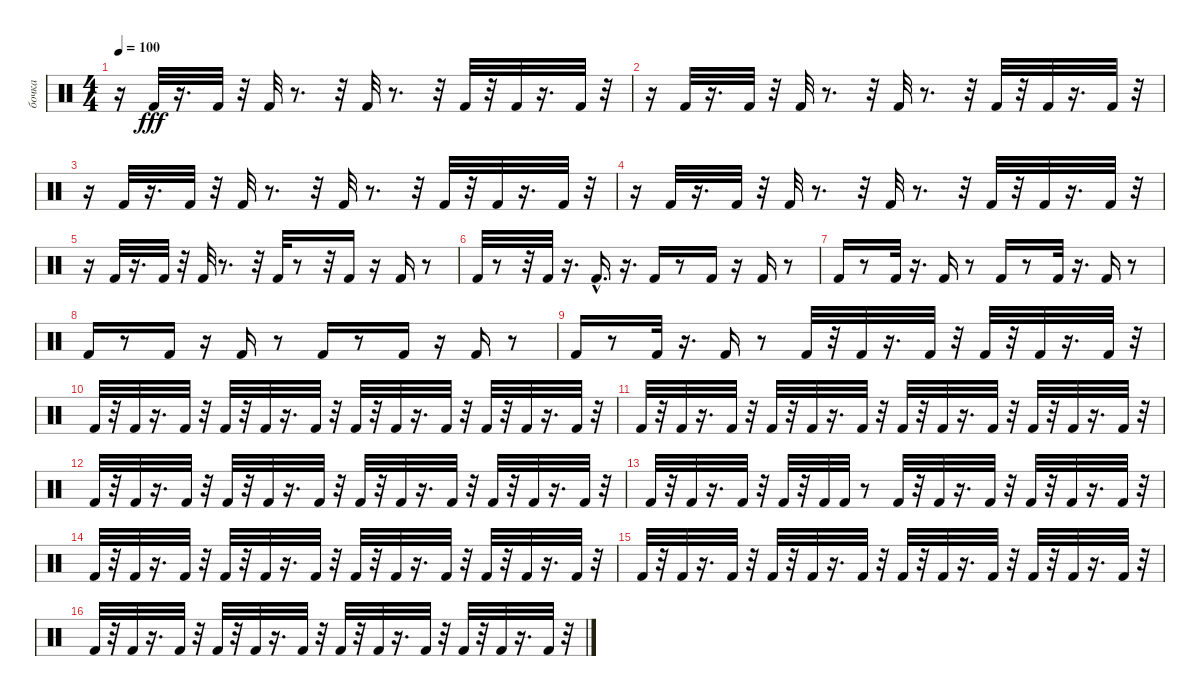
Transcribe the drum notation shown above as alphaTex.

\track ("бочка" "бочка") {instrument percussion}
\staff {score}
\articulation defaults
\ts (4 4)
\tempo 100
\clef neutral
\ks c
r.16{dy fff} "Kick (hit) 2".32 r.16{d} "Kick (hit) 2".32 r.32 "Kick (hit) 2".32 r.8{d} r.32 "Kick (hit) 2".32 r.8{d} r.32 "Kick (hit) 2".32 r.32 "Kick (hit) 2".32 r.16{d} "Kick (hit) 2".32 r.32 |
r.16 "Kick (hit) 2".32 r.16{d} "Kick (hit) 2".32 r.32 "Kick (hit) 2".32 r.8{d} r.32 "Kick (hit) 2".32 r.8{d} r.32 "Kick (hit) 2".32 r.32 "Kick (hit) 2".32 r.16{d} "Kick (hit) 2".32 r.32 |
r.16 "Kick (hit) 2".32 r.16{d} "Kick (hit) 2".32 r.32 "Kick (hit) 2".32 r.8{d} r.32 "Kick (hit) 2".32 r.8{d} r.32 "Kick (hit) 2".32 r.32 "Kick (hit) 2".32 r.16{d} "Kick (hit) 2".32 r.32 |
r.16 "Kick (hit) 2".32 r.16{d} "Kick (hit) 2".32 r.32 "Kick (hit) 2".32 r.8{d} r.32 "Kick (hit) 2".32 r.8{d} r.32 "Kick (hit) 2".32 r.32 "Kick (hit) 2".32 r.16{d} "Kick (hit) 2".32 r.32 |
r.16 "Kick (hit) 2".32 r.16{d} "Kick (hit) 2".32 r.32 "Kick (hit) 2".32 r.8{d} r.32 "Kick (hit) 2".32 r.8 r.32 "Kick (hit) 2".16 r.16 "Kick (hit) 2".16 r.8 |
"Kick (hit) 2".32 r.8 r.32 "Kick (hit) 2".32 r.16{d} "Kick (hit) 2"{hac}.16{d} r.16{d} "Kick (hit) 2".16 r.8 "Kick (hit) 2".16 r.16 "Kick (hit) 2".16 r.8 |
"Kick (hit) 2".16 r.8 "Kick (hit) 2".32 r.16{d} "Kick (hit) 2".16 r.8 "Kick (hit) 2".16 r.8 "Kick (hit) 2".32 r.16{d} "Kick (hit) 2".16 r.8 |
"Kick (hit) 2".16 r.8 "Kick (hit) 2".16 r.16 "Kick (hit) 2".16 r.8 "Kick (hit) 2".16 r.8 "Kick (hit) 2".16 r.16 "Kick (hit) 2".16 r.8 |
"Kick (hit) 2".16 r.8 "Kick (hit) 2".32 r.16{d} "Kick (hit) 2".16 r.8 "Kick (hit) 2".32 r.32 "Kick (hit) 2".32 r.16{d} "Kick (hit) 2".32 r.32 "Kick (hit) 2".32 r.32 "Kick (hit) 2".32 r.16{d} "Kick (hit) 2".32 r.32 |
"Kick (hit) 2".32 r.32 "Kick (hit) 2".32 r.16{d} "Kick (hit) 2".32 r.32 "Kick (hit) 2".32 r.32 "Kick (hit) 2".32 r.16{d} "Kick (hit) 2".32 r.32 "Kick (hit) 2".32 r.32 "Kick (hit) 2".32 r.16{d} "Kick (hit) 2".32 r.32 "Kick (hit) 2".32 r.32 "Kick (hit) 2".32 r.16{d} "Kick (hit) 2".32 r.32 |
"Kick (hit) 2".32 r.32 "Kick (hit) 2".32 r.16{d} "Kick (hit) 2".32 r.32 "Kick (hit) 2".32 r.32 "Kick (hit) 2".32 r.16{d} "Kick (hit) 2".32 r.32 "Kick (hit) 2".32 r.32 "Kick (hit) 2".32 r.16{d} "Kick (hit) 2".32 r.32 "Kick (hit) 2".32 r.32 "Kick (hit) 2".32 r.16{d} "Kick (hit) 2".32 r.32 |
"Kick (hit) 2".32 r.32 "Kick (hit) 2".32 r.16{d} "Kick (hit) 2".32 r.32 "Kick (hit) 2".32 r.32 "Kick (hit) 2".32 r.16{d} "Kick (hit) 2".32 r.32 "Kick (hit) 2".32 r.32 "Kick (hit) 2".32 r.16{d} "Kick (hit) 2".32 r.32 "Kick (hit) 2".32 r.32 "Kick (hit) 2".32 r.16{d} "Kick (hit) 2".32 r.32 |
"Kick (hit) 2".32 r.32 "Kick (hit) 2".32 r.16{d} "Kick (hit) 2".32 r.32 "Kick (hit) 2".32 r.32 "Kick (hit) 2".32 "Kick (hit) 2".32 r.8 "Kick (hit) 2".32 r.32 "Kick (hit) 2".32 r.16{d} "Kick (hit) 2".32 r.32 "Kick (hit) 2".32 r.32 "Kick (hit) 2".32 r.16{d} "Kick (hit) 2".32 r.32 |
"Kick (hit) 2".32 r.32 "Kick (hit) 2".32 r.16{d} "Kick (hit) 2".32 r.32 "Kick (hit) 2".32 r.32 "Kick (hit) 2".32 r.16{d} "Kick (hit) 2".32 r.32 "Kick (hit) 2".32 r.32 "Kick (hit) 2".32 r.16{d} "Kick (hit) 2".32 r.32 "Kick (hit) 2".32 r.32 "Kick (hit) 2".32 r.16{d} "Kick (hit) 2".32 r.32 |
"Kick (hit) 2".32 r.32 "Kick (hit) 2".32 r.16{d} "Kick (hit) 2".32 r.32 "Kick (hit) 2".32 r.32 "Kick (hit) 2".32 r.16{d} "Kick (hit) 2".32 r.32 "Kick (hit) 2".32 r.32 "Kick (hit) 2".32 r.16{d} "Kick (hit) 2".32 r.32 "Kick (hit) 2".32 r.32 "Kick (hit) 2".32 r.16{d} "Kick (hit) 2".32 r.32 |
"Kick (hit) 2".32 r.32 "Kick (hit) 2".32 r.16{d} "Kick (hit) 2".32 r.32 "Kick (hit) 2".32 r.32 "Kick (hit) 2".32 r.16{d} "Kick (hit) 2".32 r.32 "Kick (hit) 2".32 r.32 "Kick (hit) 2".32 r.16{d} "Kick (hit) 2".32 r.32 "Kick (hit) 2".32 r.32 "Kick (hit) 2".32 r.16{d} "Kick (hit) 2".32 r.32
